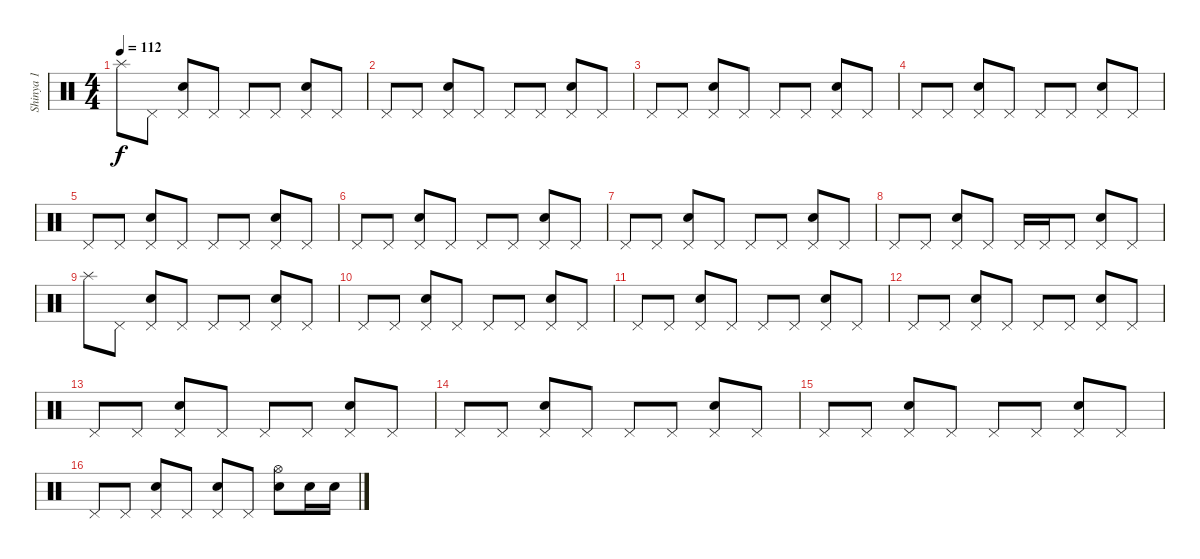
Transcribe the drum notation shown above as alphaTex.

\track ("Shinya 1" "Shinya 1") {instrument percussion}
\staff {score}
\articulation defaults
\ts (4 4)
\tempo 112
\clef neutral
\ks c "Splash (hit)".8{dy f} "Pedal Hi-Hat (hit)".8
("Pedal Hi-Hat (hit)" "Snare (hit) 2").8 "Pedal Hi-Hat (hit)".8 "Pedal Hi-Hat (hit)".8 "Pedal Hi-Hat (hit)".8 ("Pedal Hi-Hat (hit)" "Snare (hit) 2").8 "Pedal Hi-Hat (hit)".8 |
"Pedal Hi-Hat (hit)".8 "Pedal Hi-Hat (hit)".8 ("Pedal Hi-Hat (hit)" "Snare (hit) 2").8 "Pedal Hi-Hat (hit)".8 "Pedal Hi-Hat (hit)".8 "Pedal Hi-Hat (hit)".8 ("Pedal Hi-Hat (hit)" "Snare (hit) 2").8 "Pedal Hi-Hat (hit)".8 |
"Pedal Hi-Hat (hit)".8 "Pedal Hi-Hat (hit)".8 ("Pedal Hi-Hat (hit)" "Snare (hit) 2").8 "Pedal Hi-Hat (hit)".8 "Pedal Hi-Hat (hit)".8 "Pedal Hi-Hat (hit)".8 ("Pedal Hi-Hat (hit)" "Snare (hit) 2").8 "Pedal Hi-Hat (hit)".8 |
"Pedal Hi-Hat (hit)".8 "Pedal Hi-Hat (hit)".8 ("Pedal Hi-Hat (hit)" "Snare (hit) 2").8 "Pedal Hi-Hat (hit)".8 "Pedal Hi-Hat (hit)".8 "Pedal Hi-Hat (hit)".8 ("Pedal Hi-Hat (hit)" "Snare (hit) 2").8 "Pedal Hi-Hat (hit)".8 |
"Pedal Hi-Hat (hit)".8 "Pedal Hi-Hat (hit)".8 ("Pedal Hi-Hat (hit)" "Snare (hit) 2").8 "Pedal Hi-Hat (hit)".8 "Pedal Hi-Hat (hit)".8 "Pedal Hi-Hat (hit)".8 ("Pedal Hi-Hat (hit)" "Snare (hit) 2").8 "Pedal Hi-Hat (hit)".8 |
"Pedal Hi-Hat (hit)".8 "Pedal Hi-Hat (hit)".8 ("Pedal Hi-Hat (hit)" "Snare (hit) 2").8 "Pedal Hi-Hat (hit)".8 "Pedal Hi-Hat (hit)".8 "Pedal Hi-Hat (hit)".8 ("Pedal Hi-Hat (hit)" "Snare (hit) 2").8 "Pedal Hi-Hat (hit)".8 |
"Pedal Hi-Hat (hit)".8 "Pedal Hi-Hat (hit)".8 ("Pedal Hi-Hat (hit)" "Snare (hit) 2").8 "Pedal Hi-Hat (hit)".8 "Pedal Hi-Hat (hit)".8 "Pedal Hi-Hat (hit)".8 ("Pedal Hi-Hat (hit)" "Snare (hit) 2").8 "Pedal Hi-Hat (hit)".8 |
"Pedal Hi-Hat (hit)".8 "Pedal Hi-Hat (hit)".8 ("Pedal Hi-Hat (hit)" "Snare (hit) 2").8 "Pedal Hi-Hat (hit)".8 "Pedal Hi-Hat (hit)".16 "Pedal Hi-Hat (hit)".16 "Pedal Hi-Hat (hit)".8 ("Pedal Hi-Hat (hit)" "Snare (hit) 2").8 "Pedal Hi-Hat (hit)".8 |
"Splash (hit)".8 "Pedal Hi-Hat (hit)".8 ("Pedal Hi-Hat (hit)" "Snare (hit) 2").8 "Pedal Hi-Hat (hit)".8 "Pedal Hi-Hat (hit)".8 "Pedal Hi-Hat (hit)".8 ("Pedal Hi-Hat (hit)" "Snare (hit) 2").8 "Pedal Hi-Hat (hit)".8 |
"Pedal Hi-Hat (hit)".8 "Pedal Hi-Hat (hit)".8 ("Pedal Hi-Hat (hit)" "Snare (hit) 2").8 "Pedal Hi-Hat (hit)".8 "Pedal Hi-Hat (hit)".8 "Pedal Hi-Hat (hit)".8 ("Pedal Hi-Hat (hit)" "Snare (hit) 2").8 "Pedal Hi-Hat (hit)".8 |
"Pedal Hi-Hat (hit)".8 "Pedal Hi-Hat (hit)".8 ("Pedal Hi-Hat (hit)" "Snare (hit) 2").8 "Pedal Hi-Hat (hit)".8 "Pedal Hi-Hat (hit)".8 "Pedal Hi-Hat (hit)".8 ("Pedal Hi-Hat (hit)" "Snare (hit) 2").8 "Pedal Hi-Hat (hit)".8 |
"Pedal Hi-Hat (hit)".8 "Pedal Hi-Hat (hit)".8 ("Pedal Hi-Hat (hit)" "Snare (hit) 2").8 "Pedal Hi-Hat (hit)".8 "Pedal Hi-Hat (hit)".8 "Pedal Hi-Hat (hit)".8 ("Pedal Hi-Hat (hit)" "Snare (hit) 2").8 "Pedal Hi-Hat (hit)".8 |
"Pedal Hi-Hat (hit)".8 "Pedal Hi-Hat (hit)".8 ("Pedal Hi-Hat (hit)" "Snare (hit) 2").8 "Pedal Hi-Hat (hit)".8 "Pedal Hi-Hat (hit)".8 "Pedal Hi-Hat (hit)".8 ("Pedal Hi-Hat (hit)" "Snare (hit) 2").8 "Pedal Hi-Hat (hit)".8 |
"Pedal Hi-Hat (hit)".8 "Pedal Hi-Hat (hit)".8 ("Pedal Hi-Hat (hit)" "Snare (hit) 2").8 "Pedal Hi-Hat (hit)".8 "Pedal Hi-Hat (hit)".8 "Pedal Hi-Hat (hit)".8 ("Pedal Hi-Hat (hit)" "Snare (hit) 2").8 "Pedal Hi-Hat (hit)".8 |
"Pedal Hi-Hat (hit)".8 "Pedal Hi-Hat (hit)".8 ("Pedal Hi-Hat (hit)" "Snare (hit) 2").8 "Pedal Hi-Hat (hit)".8 "Pedal Hi-Hat (hit)".8 "Pedal Hi-Hat (hit)".8 ("Pedal Hi-Hat (hit)" "Snare (hit) 2").8 "Pedal Hi-Hat (hit)".8 |
"Pedal Hi-Hat (hit)".8 "Pedal Hi-Hat (hit)".8 ("Pedal Hi-Hat (hit)" "Snare (hit) 2").8 "Pedal Hi-Hat (hit)".8 ("Pedal Hi-Hat (hit)" "Snare (hit) 2").8 "Pedal Hi-Hat (hit)".8 ("Hi-Hat (open)" "Snare (hit) 2").8 "Snare (hit) 2".16 "Snare (hit) 2".16
